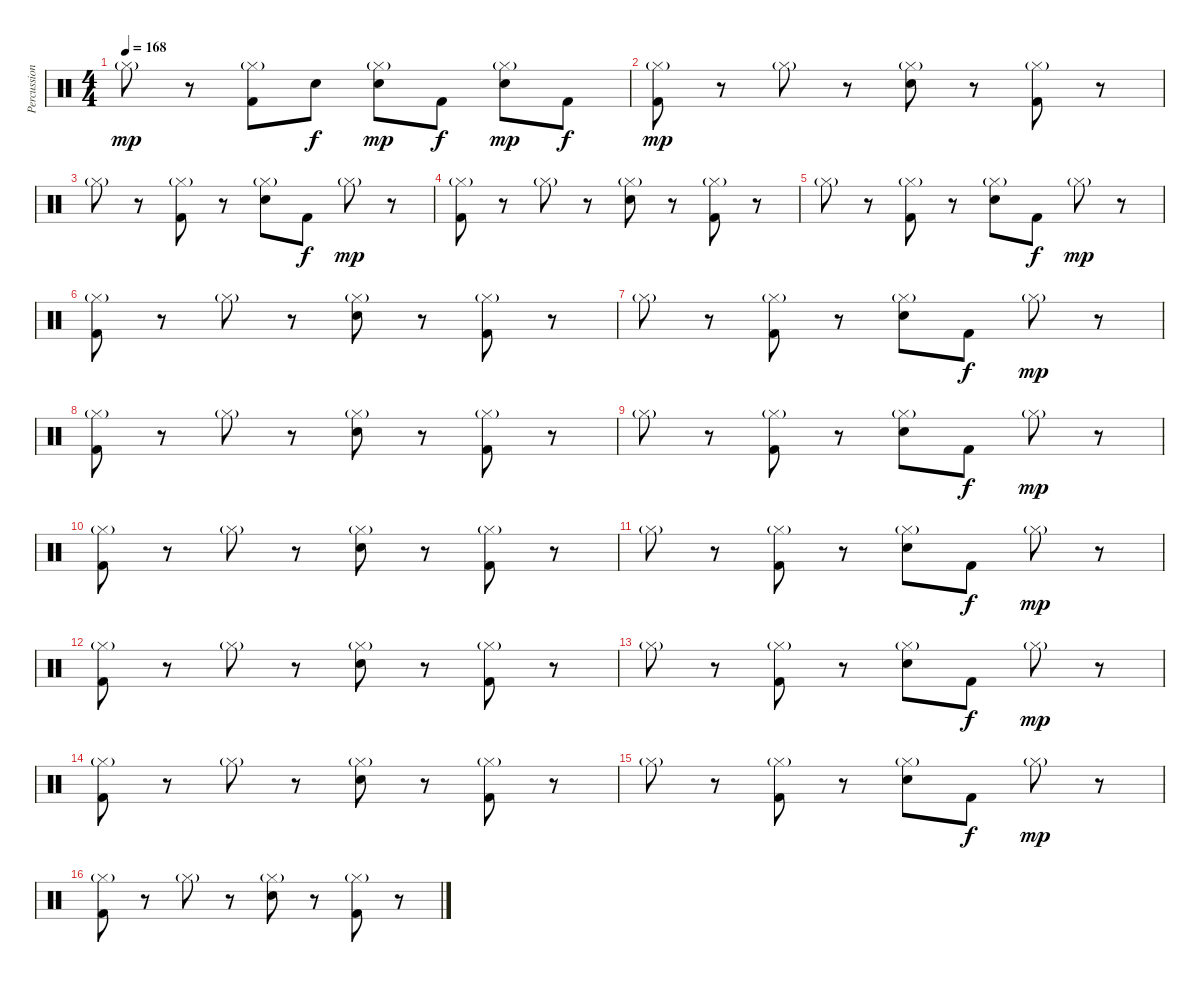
\track ("Percussion" "Percussion") {instrument percussion}
\staff {score}
\articulation defaults
\ts (4 4)
\tempo 168
\clef neutral
\ks c "Hi-Hat (closed)"{g}.8{dy mp}
r.8 ("Hi-Hat (closed)"{g} "Kick (hit) 2").8 "Hand Clap (hit)".8{dy f} ("Hi-Hat (closed)"{g} "Hand Clap (hit)").8{dy mp} "Kick (hit) 2".8{dy f} ("Hi-Hat (closed)"{g} "Hand Clap (hit)").8{dy mp} "Kick (hit) 2".8{dy f} |
("Hi-Hat (closed)"{g} "Kick (hit) 2").8{dy mp} r.8 "Hi-Hat (closed)"{g}.8 r.8 ("Hi-Hat (closed)"{g} "Hand Clap (hit)").8 r.8 ("Hi-Hat (closed)"{g} "Kick (hit) 2").8 r.8 |
"Hi-Hat (closed)"{g}.8 r.8 ("Hi-Hat (closed)"{g} "Kick (hit) 2").8 r.8 ("Hi-Hat (closed)"{g} "Hand Clap (hit)").8 "Kick (hit) 2".8{dy f} "Hi-Hat (closed)"{g}.8{dy mp} r.8 |
("Hi-Hat (closed)"{g} "Kick (hit) 2").8 r.8 "Hi-Hat (closed)"{g}.8 r.8 ("Hi-Hat (closed)"{g} "Hand Clap (hit)").8 r.8 ("Hi-Hat (closed)"{g} "Kick (hit) 2").8 r.8 |
"Hi-Hat (closed)"{g}.8 r.8 ("Hi-Hat (closed)"{g} "Kick (hit) 2").8 r.8 ("Hi-Hat (closed)"{g} "Hand Clap (hit)").8 "Kick (hit) 2".8{dy f} "Hi-Hat (closed)"{g}.8{dy mp} r.8 |
("Hi-Hat (closed)"{g} "Kick (hit) 2").8 r.8 "Hi-Hat (closed)"{g}.8 r.8 ("Hi-Hat (closed)"{g} "Hand Clap (hit)").8 r.8 ("Hi-Hat (closed)"{g} "Kick (hit) 2").8 r.8 |
"Hi-Hat (closed)"{g}.8 r.8 ("Hi-Hat (closed)"{g} "Kick (hit) 2").8 r.8 ("Hi-Hat (closed)"{g} "Hand Clap (hit)").8 "Kick (hit) 2".8{dy f} "Hi-Hat (closed)"{g}.8{dy mp} r.8 |
("Hi-Hat (closed)"{g} "Kick (hit) 2").8 r.8 "Hi-Hat (closed)"{g}.8 r.8 ("Hi-Hat (closed)"{g} "Hand Clap (hit)").8 r.8 ("Hi-Hat (closed)"{g} "Kick (hit) 2").8 r.8 |
"Hi-Hat (closed)"{g}.8 r.8 ("Hi-Hat (closed)"{g} "Kick (hit) 2").8 r.8 ("Hi-Hat (closed)"{g} "Hand Clap (hit)").8 "Kick (hit) 2".8{dy f} "Hi-Hat (closed)"{g}.8{dy mp} r.8 |
("Hi-Hat (closed)"{g} "Kick (hit) 2").8 r.8 "Hi-Hat (closed)"{g}.8 r.8 ("Hi-Hat (closed)"{g} "Hand Clap (hit)").8 r.8 ("Hi-Hat (closed)"{g} "Kick (hit) 2").8 r.8 |
"Hi-Hat (closed)"{g}.8 r.8 ("Hi-Hat (closed)"{g} "Kick (hit) 2").8 r.8 ("Hi-Hat (closed)"{g} "Hand Clap (hit)").8 "Kick (hit) 2".8{dy f} "Hi-Hat (closed)"{g}.8{dy mp} r.8 |
("Hi-Hat (closed)"{g} "Kick (hit) 2").8 r.8 "Hi-Hat (closed)"{g}.8 r.8 ("Hi-Hat (closed)"{g} "Hand Clap (hit)").8 r.8 ("Hi-Hat (closed)"{g} "Kick (hit) 2").8 r.8 |
"Hi-Hat (closed)"{g}.8 r.8 ("Hi-Hat (closed)"{g} "Kick (hit) 2").8 r.8 ("Hi-Hat (closed)"{g} "Hand Clap (hit)").8 "Kick (hit) 2".8{dy f} "Hi-Hat (closed)"{g}.8{dy mp} r.8 |
("Hi-Hat (closed)"{g} "Kick (hit) 2").8 r.8 "Hi-Hat (closed)"{g}.8 r.8 ("Hi-Hat (closed)"{g} "Hand Clap (hit)").8 r.8 ("Hi-Hat (closed)"{g} "Kick (hit) 2").8 r.8 |
"Hi-Hat (closed)"{g}.8 r.8 ("Hi-Hat (closed)"{g} "Kick (hit) 2").8 r.8 ("Hi-Hat (closed)"{g} "Hand Clap (hit)").8 "Kick (hit) 2".8{dy f} "Hi-Hat (closed)"{g}.8{dy mp} r.8 |
("Hi-Hat (closed)"{g} "Kick (hit) 2").8 r.8 "Hi-Hat (closed)"{g}.8 r.8 ("Hi-Hat (closed)"{g} "Hand Clap (hit)").8 r.8 ("Hi-Hat (closed)"{g} "Kick (hit) 2").8 r.8
